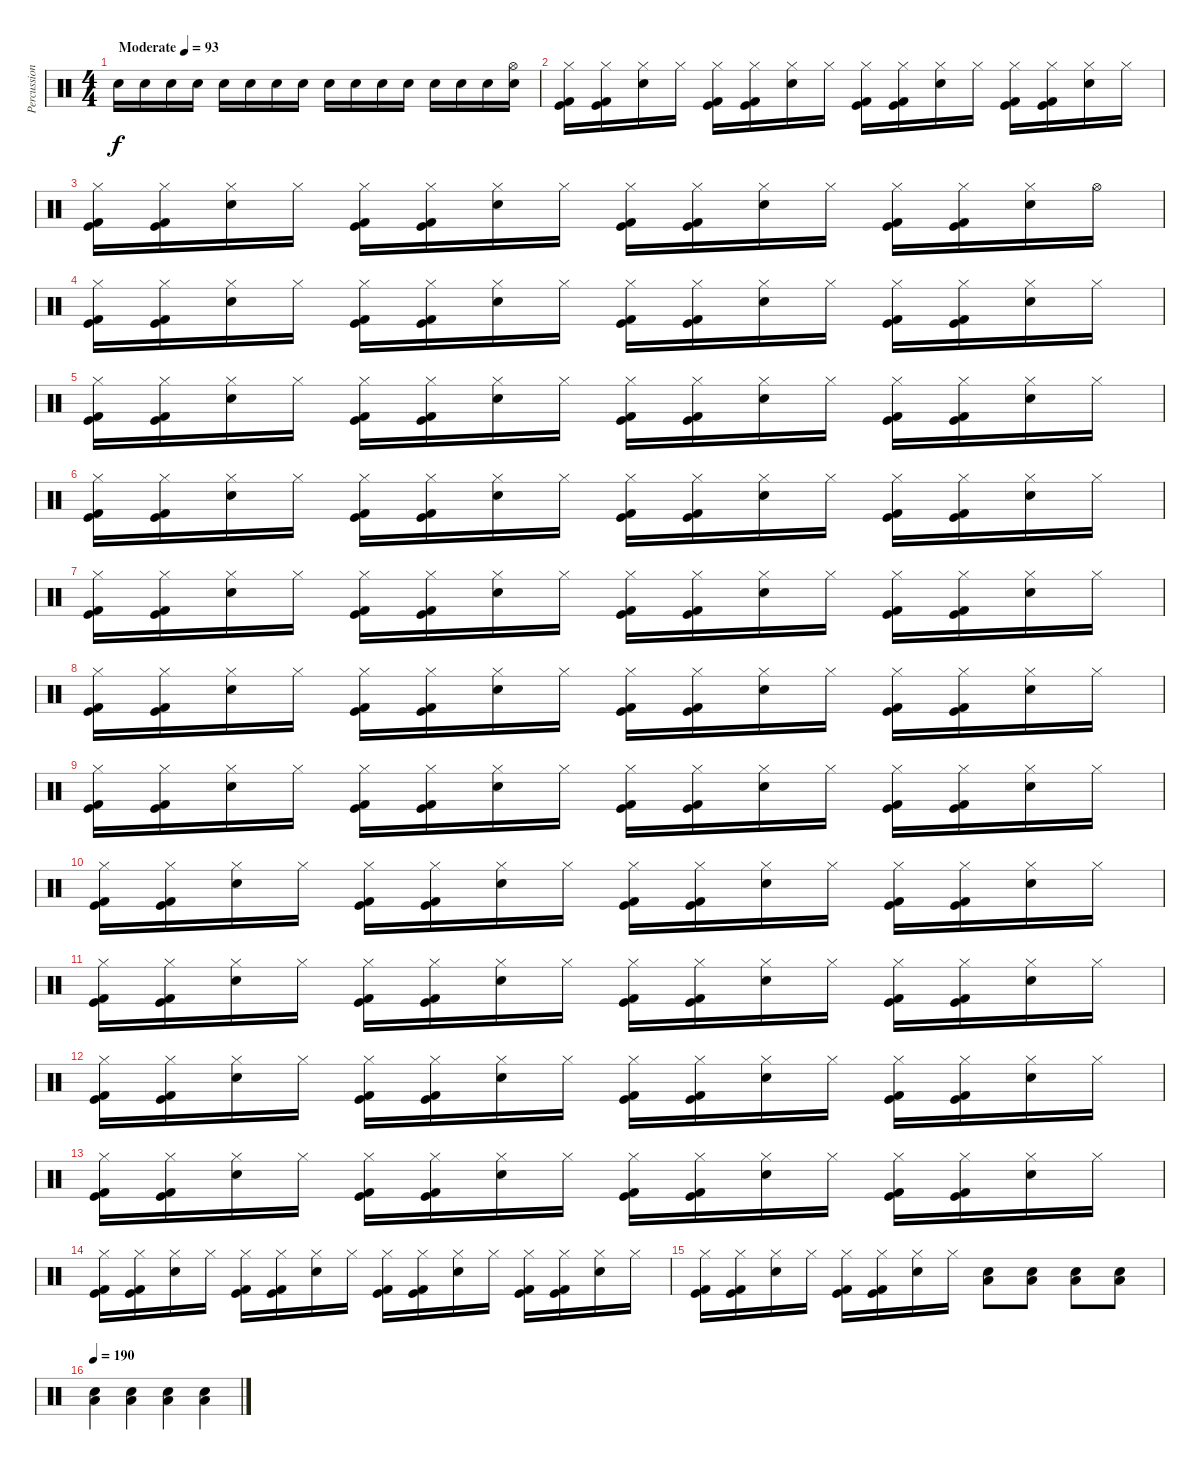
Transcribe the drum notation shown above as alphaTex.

\track ("Percussion" "Percussion") {instrument percussion}
\staff {score}
\articulation defaults
\ts (4 4)
\tempo (93 "Moderate")
\clef neutral
\ks c "Snare (hit)".16{dy f} "Snare (hit)".16 "Snare (hit)".16 "Snare (hit)".16 "Snare (hit)".16 "Snare (hit)".16 "Snare (hit)".16 "Snare (hit)".16 "Snare (hit)".16 "Snare (hit)".16 "Snare (hit)".16 "Snare (hit)".16 "Snare (hit)".16 "Snare (hit)".16 "Snare (hit)".16
("Hi-Hat (open)" "Snare (hit)").16 |
("Hi-Hat (closed)" "Kick (hit)" "Kick (hit) 2").16 ("Hi-Hat (closed)" "Kick (hit)" "Kick (hit) 2").16 ("Hi-Hat (closed)" "Electric Snare (hit)").16 "Hi-Hat (closed)".16 ("Hi-Hat (closed)" "Kick (hit)" "Kick (hit) 2").16 ("Hi-Hat (closed)" "Kick (hit)" "Kick (hit) 2").16 ("Hi-Hat (closed)" "Electric Snare (hit)").16 "Hi-Hat (closed)".16 ("Hi-Hat (closed)" "Kick (hit)" "Kick (hit) 2").16 ("Hi-Hat (closed)" "Kick (hit)" "Kick (hit) 2").16 ("Hi-Hat (closed)" "Electric Snare (hit)").16 "Hi-Hat (closed)".16 ("Hi-Hat (closed)" "Kick (hit)" "Kick (hit) 2").16 ("Hi-Hat (closed)" "Kick (hit)" "Kick (hit) 2").16 ("Hi-Hat (closed)" "Electric Snare (hit)").16 "Hi-Hat (closed)".16 |
("Hi-Hat (closed)" "Kick (hit)" "Kick (hit) 2").16 ("Hi-Hat (closed)" "Kick (hit)" "Kick (hit) 2").16 ("Hi-Hat (closed)" "Electric Snare (hit)").16 "Hi-Hat (closed)".16 ("Hi-Hat (closed)" "Kick (hit)" "Kick (hit) 2").16 ("Hi-Hat (closed)" "Kick (hit)" "Kick (hit) 2").16 ("Hi-Hat (closed)" "Electric Snare (hit)").16 "Hi-Hat (closed)".16 ("Hi-Hat (closed)" "Kick (hit)" "Kick (hit) 2").16 ("Hi-Hat (closed)" "Kick (hit)" "Kick (hit) 2").16 ("Hi-Hat (closed)" "Electric Snare (hit)").16 "Hi-Hat (closed)".16 ("Hi-Hat (closed)" "Kick (hit)" "Kick (hit) 2").16 ("Hi-Hat (closed)" "Kick (hit)" "Kick (hit) 2").16 ("Hi-Hat (closed)" "Electric Snare (hit)").16 "Hi-Hat (open)".16 |
("Hi-Hat (closed)" "Kick (hit)" "Kick (hit) 2").16 ("Hi-Hat (closed)" "Kick (hit)" "Kick (hit) 2").16 ("Hi-Hat (closed)" "Electric Snare (hit)").16 "Hi-Hat (closed)".16 ("Hi-Hat (closed)" "Kick (hit)" "Kick (hit) 2").16 ("Hi-Hat (closed)" "Kick (hit)" "Kick (hit) 2").16 ("Hi-Hat (closed)" "Electric Snare (hit)").16 "Hi-Hat (closed)".16 ("Hi-Hat (closed)" "Kick (hit)" "Kick (hit) 2").16 ("Hi-Hat (closed)" "Kick (hit)" "Kick (hit) 2").16 ("Hi-Hat (closed)" "Electric Snare (hit)").16 "Hi-Hat (closed)".16 ("Hi-Hat (closed)" "Kick (hit)" "Kick (hit) 2").16 ("Hi-Hat (closed)" "Kick (hit)" "Kick (hit) 2").16 ("Hi-Hat (closed)" "Electric Snare (hit)").16 "Hi-Hat (closed)".16 |
("Hi-Hat (closed)" "Kick (hit)" "Kick (hit) 2").16 ("Hi-Hat (closed)" "Kick (hit)" "Kick (hit) 2").16 ("Hi-Hat (closed)" "Electric Snare (hit)").16 "Hi-Hat (closed)".16 ("Hi-Hat (closed)" "Kick (hit)" "Kick (hit) 2").16 ("Hi-Hat (closed)" "Kick (hit)" "Kick (hit) 2").16 ("Hi-Hat (closed)" "Electric Snare (hit)").16 "Hi-Hat (closed)".16 ("Hi-Hat (closed)" "Kick (hit)" "Kick (hit) 2").16 ("Hi-Hat (closed)" "Kick (hit)" "Kick (hit) 2").16 ("Hi-Hat (closed)" "Electric Snare (hit)").16 "Hi-Hat (closed)".16 ("Hi-Hat (closed)" "Kick (hit)" "Kick (hit) 2").16 ("Hi-Hat (closed)" "Kick (hit)" "Kick (hit) 2").16 ("Hi-Hat (closed)" "Electric Snare (hit)").16 "Hi-Hat (closed)".16 |
("Hi-Hat (closed)" "Kick (hit)" "Kick (hit) 2").16 ("Hi-Hat (closed)" "Kick (hit)" "Kick (hit) 2").16 ("Hi-Hat (closed)" "Electric Snare (hit)").16 "Hi-Hat (closed)".16 ("Hi-Hat (closed)" "Kick (hit)" "Kick (hit) 2").16 ("Hi-Hat (closed)" "Kick (hit)" "Kick (hit) 2").16 ("Hi-Hat (closed)" "Electric Snare (hit)").16 "Hi-Hat (closed)".16 ("Hi-Hat (closed)" "Kick (hit)" "Kick (hit) 2").16 ("Hi-Hat (closed)" "Kick (hit)" "Kick (hit) 2").16 ("Hi-Hat (closed)" "Electric Snare (hit)").16 "Hi-Hat (closed)".16 ("Hi-Hat (closed)" "Kick (hit)" "Kick (hit) 2").16 ("Hi-Hat (closed)" "Kick (hit)" "Kick (hit) 2").16 ("Hi-Hat (closed)" "Electric Snare (hit)").16 "Hi-Hat (closed)".16 |
("Hi-Hat (closed)" "Kick (hit)" "Kick (hit) 2").16 ("Hi-Hat (closed)" "Kick (hit)" "Kick (hit) 2").16 ("Hi-Hat (closed)" "Electric Snare (hit)").16 "Hi-Hat (closed)".16 ("Hi-Hat (closed)" "Kick (hit)" "Kick (hit) 2").16 ("Hi-Hat (closed)" "Kick (hit)" "Kick (hit) 2").16 ("Hi-Hat (closed)" "Electric Snare (hit)").16 "Hi-Hat (closed)".16 ("Hi-Hat (closed)" "Kick (hit)" "Kick (hit) 2").16 ("Hi-Hat (closed)" "Kick (hit)" "Kick (hit) 2").16 ("Hi-Hat (closed)" "Electric Snare (hit)").16 "Hi-Hat (closed)".16 ("Hi-Hat (closed)" "Kick (hit)" "Kick (hit) 2").16 ("Hi-Hat (closed)" "Kick (hit)" "Kick (hit) 2").16 ("Hi-Hat (closed)" "Electric Snare (hit)").16 "Hi-Hat (closed)".16 |
("Hi-Hat (closed)" "Kick (hit)" "Kick (hit) 2").16 ("Hi-Hat (closed)" "Kick (hit)" "Kick (hit) 2").16 ("Hi-Hat (closed)" "Electric Snare (hit)").16 "Hi-Hat (closed)".16 ("Hi-Hat (closed)" "Kick (hit)" "Kick (hit) 2").16 ("Hi-Hat (closed)" "Kick (hit)" "Kick (hit) 2").16 ("Hi-Hat (closed)" "Electric Snare (hit)").16 "Hi-Hat (closed)".16 ("Hi-Hat (closed)" "Kick (hit)" "Kick (hit) 2").16 ("Hi-Hat (closed)" "Kick (hit)" "Kick (hit) 2").16 ("Hi-Hat (closed)" "Electric Snare (hit)").16 "Hi-Hat (closed)".16 ("Hi-Hat (closed)" "Kick (hit)" "Kick (hit) 2").16 ("Hi-Hat (closed)" "Kick (hit)" "Kick (hit) 2").16 ("Hi-Hat (closed)" "Electric Snare (hit)").16 "Hi-Hat (closed)".16 |
("Hi-Hat (closed)" "Kick (hit)" "Kick (hit) 2").16 ("Hi-Hat (closed)" "Kick (hit)" "Kick (hit) 2").16 ("Hi-Hat (closed)" "Electric Snare (hit)").16 "Hi-Hat (closed)".16 ("Hi-Hat (closed)" "Kick (hit)" "Kick (hit) 2").16 ("Hi-Hat (closed)" "Kick (hit)" "Kick (hit) 2").16 ("Hi-Hat (closed)" "Electric Snare (hit)").16 "Hi-Hat (closed)".16 ("Hi-Hat (closed)" "Kick (hit)" "Kick (hit) 2").16 ("Hi-Hat (closed)" "Kick (hit)" "Kick (hit) 2").16 ("Hi-Hat (closed)" "Electric Snare (hit)").16 "Hi-Hat (closed)".16 ("Hi-Hat (closed)" "Kick (hit)" "Kick (hit) 2").16 ("Hi-Hat (closed)" "Kick (hit)" "Kick (hit) 2").16 ("Hi-Hat (closed)" "Electric Snare (hit)").16 "Hi-Hat (closed)".16 |
("Hi-Hat (closed)" "Kick (hit)" "Kick (hit) 2").16 ("Hi-Hat (closed)" "Kick (hit)" "Kick (hit) 2").16 ("Hi-Hat (closed)" "Electric Snare (hit)").16 "Hi-Hat (closed)".16 ("Hi-Hat (closed)" "Kick (hit)" "Kick (hit) 2").16 ("Hi-Hat (closed)" "Kick (hit)" "Kick (hit) 2").16 ("Hi-Hat (closed)" "Electric Snare (hit)").16 "Hi-Hat (closed)".16 ("Hi-Hat (closed)" "Kick (hit)" "Kick (hit) 2").16 ("Hi-Hat (closed)" "Kick (hit)" "Kick (hit) 2").16 ("Hi-Hat (closed)" "Electric Snare (hit)").16 "Hi-Hat (closed)".16 ("Hi-Hat (closed)" "Kick (hit)" "Kick (hit) 2").16 ("Hi-Hat (closed)" "Kick (hit)" "Kick (hit) 2").16 ("Hi-Hat (closed)" "Electric Snare (hit)").16 "Hi-Hat (closed)".16 |
("Hi-Hat (closed)" "Kick (hit)" "Kick (hit) 2").16 ("Hi-Hat (closed)" "Kick (hit)" "Kick (hit) 2").16 ("Hi-Hat (closed)" "Electric Snare (hit)").16 "Hi-Hat (closed)".16 ("Hi-Hat (closed)" "Kick (hit)" "Kick (hit) 2").16 ("Hi-Hat (closed)" "Kick (hit)" "Kick (hit) 2").16 ("Hi-Hat (closed)" "Electric Snare (hit)").16 "Hi-Hat (closed)".16 ("Hi-Hat (closed)" "Kick (hit)" "Kick (hit) 2").16 ("Hi-Hat (closed)" "Kick (hit)" "Kick (hit) 2").16 ("Hi-Hat (closed)" "Electric Snare (hit)").16 "Hi-Hat (closed)".16 ("Hi-Hat (closed)" "Kick (hit)" "Kick (hit) 2").16 ("Hi-Hat (closed)" "Kick (hit)" "Kick (hit) 2").16 ("Hi-Hat (closed)" "Electric Snare (hit)").16 "Hi-Hat (closed)".16 |
("Hi-Hat (closed)" "Kick (hit)" "Kick (hit) 2").16 ("Hi-Hat (closed)" "Kick (hit)" "Kick (hit) 2").16 ("Hi-Hat (closed)" "Electric Snare (hit)").16 "Hi-Hat (closed)".16 ("Hi-Hat (closed)" "Kick (hit)" "Kick (hit) 2").16 ("Hi-Hat (closed)" "Kick (hit)" "Kick (hit) 2").16 ("Hi-Hat (closed)" "Electric Snare (hit)").16 "Hi-Hat (closed)".16 ("Hi-Hat (closed)" "Kick (hit)" "Kick (hit) 2").16 ("Hi-Hat (closed)" "Kick (hit)" "Kick (hit) 2").16 ("Hi-Hat (closed)" "Electric Snare (hit)").16 "Hi-Hat (closed)".16 ("Hi-Hat (closed)" "Kick (hit)" "Kick (hit) 2").16 ("Hi-Hat (closed)" "Kick (hit)" "Kick (hit) 2").16 ("Hi-Hat (closed)" "Electric Snare (hit)").16 "Hi-Hat (closed)".16 |
("Hi-Hat (closed)" "Kick (hit)" "Kick (hit) 2").16 ("Hi-Hat (closed)" "Kick (hit)" "Kick (hit) 2").16 ("Hi-Hat (closed)" "Electric Snare (hit)").16 "Hi-Hat (closed)".16 ("Hi-Hat (closed)" "Kick (hit)" "Kick (hit) 2").16 ("Hi-Hat (closed)" "Kick (hit)" "Kick (hit) 2").16 ("Hi-Hat (closed)" "Electric Snare (hit)").16 "Hi-Hat (closed)".16 ("Hi-Hat (closed)" "Kick (hit)" "Kick (hit) 2").16 ("Hi-Hat (closed)" "Kick (hit)" "Kick (hit) 2").16 ("Hi-Hat (closed)" "Electric Snare (hit)").16 "Hi-Hat (closed)".16 ("Hi-Hat (closed)" "Kick (hit)" "Kick (hit) 2").16 ("Hi-Hat (closed)" "Kick (hit)" "Kick (hit) 2").16 ("Hi-Hat (closed)" "Electric Snare (hit)").16 "Hi-Hat (closed)".16 |
("Hi-Hat (closed)" "Kick (hit)" "Kick (hit) 2").16 ("Hi-Hat (closed)" "Kick (hit)" "Kick (hit) 2").16 ("Hi-Hat (closed)" "Electric Snare (hit)").16 "Hi-Hat (closed)".16 ("Hi-Hat (closed)" "Kick (hit)" "Kick (hit) 2").16 ("Hi-Hat (closed)" "Kick (hit)" "Kick (hit) 2").16 ("Hi-Hat (closed)" "Electric Snare (hit)").16 "Hi-Hat (closed)".16 ("Hi-Hat (closed)" "Kick (hit)" "Kick (hit) 2").16 ("Hi-Hat (closed)" "Kick (hit)" "Kick (hit) 2").16 ("Hi-Hat (closed)" "Electric Snare (hit)").16 "Hi-Hat (closed)".16 ("Hi-Hat (closed)" "Kick (hit)" "Kick (hit) 2").16 ("Hi-Hat (closed)" "Kick (hit)" "Kick (hit) 2").16 ("Hi-Hat (closed)" "Electric Snare (hit)").16 "Hi-Hat (closed)".16 |
("Hi-Hat (closed)" "Kick (hit)" "Kick (hit) 2").16 ("Hi-Hat (closed)" "Kick (hit)" "Kick (hit) 2").16 ("Hi-Hat (closed)" "Electric Snare (hit)").16 "Hi-Hat (closed)".16 ("Hi-Hat (closed)" "Kick (hit)" "Kick (hit) 2").16 ("Hi-Hat (closed)" "Kick (hit)" "Kick (hit) 2").16 ("Hi-Hat (closed)" "Electric Snare (hit)").16 "Hi-Hat (closed)".16 ("Low Tom (hit)" "Electric Snare (hit)").8 ("Low Tom (hit)" "Electric Snare (hit)").8 ("Low Tom (hit)" "Electric Snare (hit)").8 ("Low Tom (hit)" "Electric Snare (hit)").8 |
\tempo 190
("Low Tom (hit)" "Electric Snare (hit)").4 ("Low Tom (hit)" "Electric Snare (hit)").4 ("Low Tom (hit)" "Electric Snare (hit)").4 ("Low Tom (hit)" "Electric Snare (hit)").4
